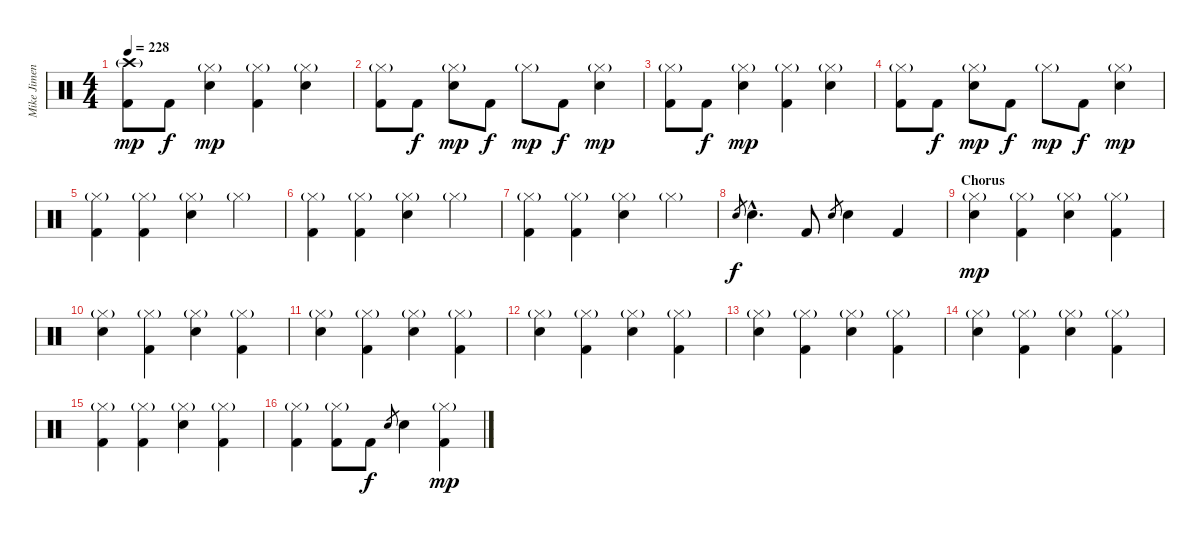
\track ("Mike Jimenez" "Mike Jimen") {instrument percussion}
\staff {score}
\articulation defaults
\ts (4 4)
\tempo 228
\clef neutral
\ks c
("Crash high (hit)"{g} "Kick (hit) 2").8{dy mp} "Kick (hit) 2".8{dy f} ("Hi-Hat (closed)"{g} "Electric Snare (hit)").4{dy mp} ("Hi-Hat (closed)"{g} "Kick (hit) 2").4 ("Hi-Hat (closed)"{g} "Electric Snare (hit)").4 |
("Hi-Hat (closed)"{g} "Kick (hit) 2").8 "Kick (hit) 2".8{dy f} ("Hi-Hat (closed)"{g} "Electric Snare (hit)").8{dy mp} "Kick (hit) 2".8{dy f} "Hi-Hat (closed)"{g}.8{dy mp} "Kick (hit) 2".8{dy f} ("Hi-Hat (closed)"{g} "Electric Snare (hit)").4{dy mp} |
("Hi-Hat (closed)"{g} "Kick (hit) 2").8 "Kick (hit) 2".8{dy f} ("Hi-Hat (closed)"{g} "Electric Snare (hit)").4{dy mp} ("Hi-Hat (closed)"{g} "Kick (hit) 2").4 ("Hi-Hat (closed)"{g} "Electric Snare (hit)").4 |
("Hi-Hat (closed)"{g} "Kick (hit) 2").8 "Kick (hit) 2".8{dy f} ("Hi-Hat (closed)"{g} "Electric Snare (hit)").8{dy mp} "Kick (hit) 2".8{dy f} "Hi-Hat (closed)"{g}.8{dy mp} "Kick (hit) 2".8{dy f} ("Hi-Hat (closed)"{g} "Electric Snare (hit)").4{dy mp} |
("Hi-Hat (closed)"{g} "Kick (hit) 2").4 ("Hi-Hat (closed)"{g} "Kick (hit) 2").4 ("Hi-Hat (closed)"{g} "Electric Snare (hit)").4 "Hi-Hat (closed)"{g}.4 |
("Hi-Hat (closed)"{g} "Kick (hit) 2").4 ("Hi-Hat (closed)"{g} "Kick (hit) 2").4 ("Hi-Hat (closed)"{g} "Electric Snare (hit)").4 "Hi-Hat (closed)"{g}.4 |
("Hi-Hat (closed)"{g} "Kick (hit) 2").4 ("Hi-Hat (closed)"{g} "Kick (hit) 2").4 ("Hi-Hat (closed)"{g} "Electric Snare (hit)").4 "Hi-Hat (closed)"{g}.4 |
"Electric Snare (hit)".8{gr dy f} "Electric Snare (hit)"{hac}.4{d} "Kick (hit) 2".8 "Electric Snare (hit)".8{gr} "Electric Snare (hit)".4 "Kick (hit) 2".4 |
\section ("" "Chorus")
("Hi-Hat (closed)"{g} "Electric Snare (hit)").4{dy mp} ("Hi-Hat (closed)"{g} "Kick (hit) 2").4 ("Hi-Hat (closed)"{g} "Electric Snare (hit)").4 ("Hi-Hat (closed)"{g} "Kick (hit) 2").4 |
("Hi-Hat (closed)"{g} "Electric Snare (hit)").4 ("Hi-Hat (closed)"{g} "Kick (hit) 2").4 ("Hi-Hat (closed)"{g} "Electric Snare (hit)").4 ("Hi-Hat (closed)"{g} "Kick (hit) 2").4 |
("Hi-Hat (closed)"{g} "Electric Snare (hit)").4 ("Hi-Hat (closed)"{g} "Kick (hit) 2").4 ("Hi-Hat (closed)"{g} "Electric Snare (hit)").4 ("Hi-Hat (closed)"{g} "Kick (hit) 2").4 |
("Hi-Hat (closed)"{g} "Electric Snare (hit)").4 ("Hi-Hat (closed)"{g} "Kick (hit) 2").4 ("Hi-Hat (closed)"{g} "Electric Snare (hit)").4 ("Hi-Hat (closed)"{g} "Kick (hit) 2").4 |
("Hi-Hat (closed)"{g} "Electric Snare (hit)").4 ("Hi-Hat (closed)"{g} "Kick (hit) 2").4 ("Hi-Hat (closed)"{g} "Electric Snare (hit)").4 ("Hi-Hat (closed)"{g} "Kick (hit) 2").4 |
("Hi-Hat (closed)"{g} "Electric Snare (hit)").4 ("Hi-Hat (closed)"{g} "Kick (hit) 2").4 ("Hi-Hat (closed)"{g} "Electric Snare (hit)").4 ("Hi-Hat (closed)"{g} "Kick (hit) 2").4 |
("Hi-Hat (closed)"{g} "Kick (hit) 2").4 ("Hi-Hat (closed)"{g} "Kick (hit) 2").4 ("Hi-Hat (closed)"{g} "Electric Snare (hit)").4 ("Hi-Hat (closed)"{g} "Kick (hit) 2").4 |
("Hi-Hat (closed)"{g} "Kick (hit) 2").4 ("Hi-Hat (closed)"{g} "Kick (hit) 2").8 "Kick (hit) 2".8{dy f} "Electric Snare (hit)".8{gr} "Electric Snare (hit)".4 ("Hi-Hat (closed)"{g} "Kick (hit) 2").4{dy mp}
